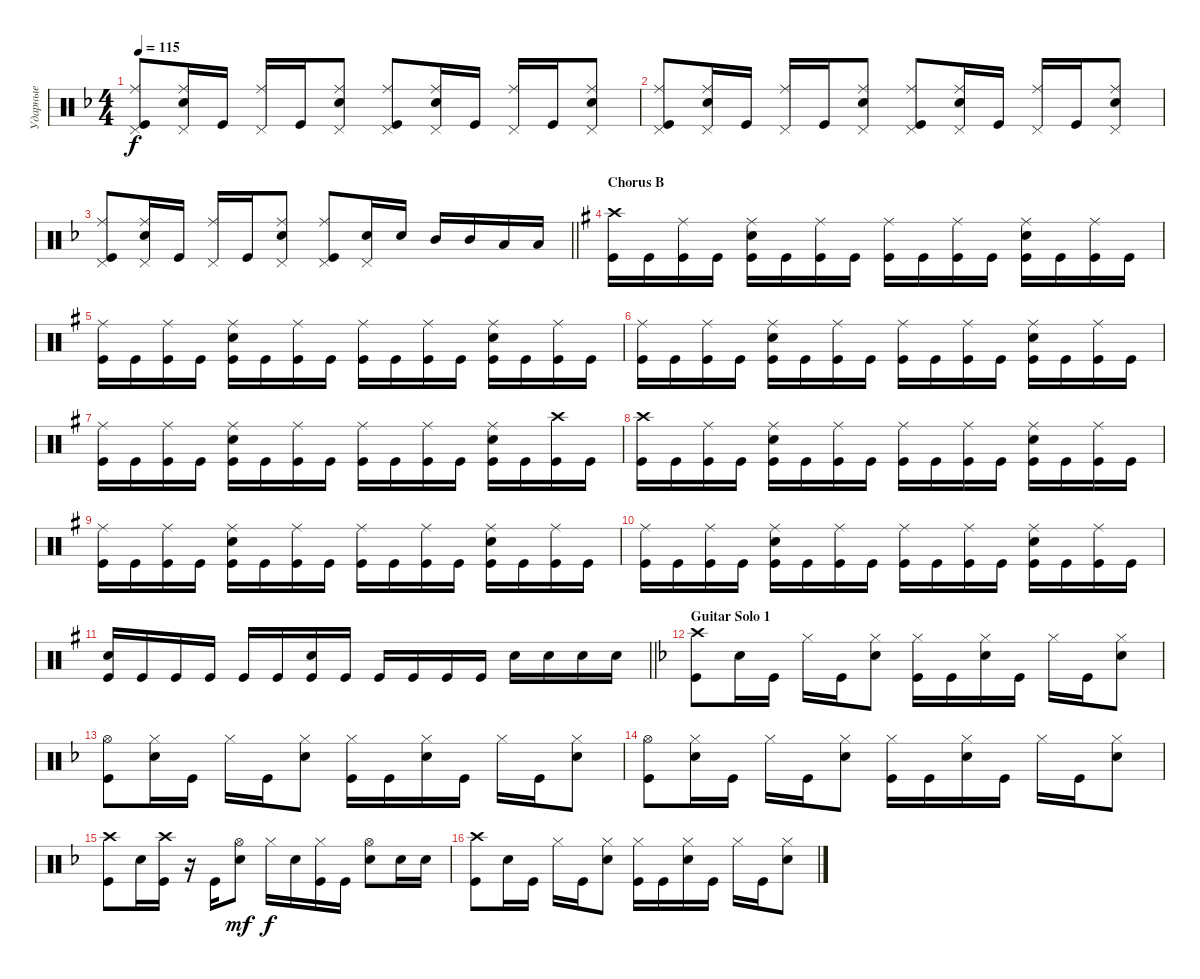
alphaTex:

\track ("Ударные" "Ударные") {instrument percussion}
\staff {score}
\articulation defaults
\ts (4 4)
\tempo 115
\clef neutral
\ks dminor
("Kick (hit)" "Pedal Hi-Hat (hit)" "Ride (middle)").8{dy f} ("Snare (hit) 2" "Ride (middle)" "Pedal Hi-Hat (hit)").16 "Kick (hit)".16 ("Ride (middle)" "Pedal Hi-Hat (hit)").16 "Kick (hit)".16 ("Snare (hit) 2" "Ride (middle)" "Pedal Hi-Hat (hit)").8 ("Kick (hit)" "Pedal Hi-Hat (hit)" "Ride (middle)").8 ("Snare (hit) 2" "Ride (middle)" "Pedal Hi-Hat (hit)").16 "Kick (hit)".16 ("Ride (middle)" "Pedal Hi-Hat (hit)").16 "Kick (hit)".16 ("Snare (hit) 2" "Ride (middle)" "Pedal Hi-Hat (hit)").8 |
("Kick (hit)" "Pedal Hi-Hat (hit)" "Ride (middle)").8 ("Snare (hit) 2" "Ride (middle)" "Pedal Hi-Hat (hit)").16 "Kick (hit)".16 ("Ride (middle)" "Pedal Hi-Hat (hit)").16 "Kick (hit)".16 ("Snare (hit) 2" "Ride (middle)" "Pedal Hi-Hat (hit)").8 ("Kick (hit)" "Pedal Hi-Hat (hit)" "Ride (middle)").8 ("Snare (hit) 2" "Ride (middle)" "Pedal Hi-Hat (hit)").16 "Kick (hit)".16 ("Ride (middle)" "Pedal Hi-Hat (hit)").16 "Kick (hit)".16 ("Snare (hit) 2" "Ride (middle)" "Pedal Hi-Hat (hit)").8 |
\barLineRight lightlight
("Kick (hit)" "Pedal Hi-Hat (hit)" "Ride (middle)").8 ("Snare (hit) 2" "Ride (middle)" "Pedal Hi-Hat (hit)").16 "Kick (hit)".16 ("Ride (middle)" "Pedal Hi-Hat (hit)").16 "Kick (hit)".16 ("Snare (hit) 2" "Ride (middle)" "Pedal Hi-Hat (hit)").8 ("Kick (hit)" "Pedal Hi-Hat (hit)" "Ride (middle)").8 ("Pedal Hi-Hat (hit)" "Snare (hit) 2").16 "Snare (hit) 2".16 "Mid Tom (hit)".16 "Mid Tom (hit)".16 "Low Tom (hit)".16 "Low Tom (hit)".16 |
\section ("" "Chorus B")
\ks eminor
("Kick (hit)" "Crash high (hit)").16 "Kick (hit)".16 ("Kick (hit)" "Ride (middle)").16 "Kick (hit)".16 ("Kick (hit)" "Snare (hit) 2" "Ride (middle)").16 "Kick (hit)".16 ("Kick (hit)" "Ride (middle)").16 "Kick (hit)".16 ("Kick (hit)" "Ride (middle)").16 "Kick (hit)".16 ("Kick (hit)" "Ride (middle)").16 "Kick (hit)".16 ("Kick (hit)" "Snare (hit) 2" "Ride (middle)").16 "Kick (hit)".16 ("Kick (hit)" "Ride (middle)").16 "Kick (hit)".16 |
("Kick (hit)" "Ride (middle)").16 "Kick (hit)".16 ("Kick (hit)" "Ride (middle)").16 "Kick (hit)".16 ("Kick (hit)" "Snare (hit) 2" "Ride (middle)").16 "Kick (hit)".16 ("Kick (hit)" "Ride (middle)").16 "Kick (hit)".16 ("Kick (hit)" "Ride (middle)").16 "Kick (hit)".16 ("Kick (hit)" "Ride (middle)").16 "Kick (hit)".16 ("Kick (hit)" "Snare (hit) 2" "Ride (middle)").16 "Kick (hit)".16 ("Kick (hit)" "Ride (middle)").16 "Kick (hit)".16 |
("Kick (hit)" "Ride (middle)").16 "Kick (hit)".16 ("Kick (hit)" "Ride (middle)").16 "Kick (hit)".16 ("Kick (hit)" "Snare (hit) 2" "Ride (middle)").16 "Kick (hit)".16 ("Kick (hit)" "Ride (middle)").16 "Kick (hit)".16 ("Kick (hit)" "Ride (middle)").16 "Kick (hit)".16 ("Kick (hit)" "Ride (middle)").16 "Kick (hit)".16 ("Kick (hit)" "Snare (hit) 2" "Ride (middle)").16 "Kick (hit)".16 ("Kick (hit)" "Ride (middle)").16 "Kick (hit)".16 |
("Kick (hit)" "Ride (middle)").16 "Kick (hit)".16 ("Kick (hit)" "Ride (middle)").16 "Kick (hit)".16 ("Kick (hit)" "Snare (hit) 2" "Ride (middle)").16 "Kick (hit)".16 ("Kick (hit)" "Ride (middle)").16 "Kick (hit)".16 ("Kick (hit)" "Ride (middle)").16 "Kick (hit)".16 ("Kick (hit)" "Ride (middle)").16 "Kick (hit)".16 ("Kick (hit)" "Snare (hit) 2" "Ride (middle)").16 "Kick (hit)".16 ("Kick (hit)" "Crash high (hit)").16 "Kick (hit)".16 |
("Kick (hit)" "Crash high (hit)").16 "Kick (hit)".16 ("Kick (hit)" "Ride (middle)").16 "Kick (hit)".16 ("Kick (hit)" "Snare (hit) 2" "Ride (middle)").16 "Kick (hit)".16 ("Kick (hit)" "Ride (middle)").16 "Kick (hit)".16 ("Kick (hit)" "Ride (middle)").16 "Kick (hit)".16 ("Kick (hit)" "Ride (middle)").16 "Kick (hit)".16 ("Kick (hit)" "Snare (hit) 2" "Ride (middle)").16 "Kick (hit)".16 ("Kick (hit)" "Ride (middle)").16 "Kick (hit)".16 |
("Kick (hit)" "Ride (middle)").16 "Kick (hit)".16 ("Kick (hit)" "Ride (middle)").16 "Kick (hit)".16 ("Kick (hit)" "Snare (hit) 2" "Ride (middle)").16 "Kick (hit)".16 ("Kick (hit)" "Ride (middle)").16 "Kick (hit)".16 ("Kick (hit)" "Ride (middle)").16 "Kick (hit)".16 ("Kick (hit)" "Ride (middle)").16 "Kick (hit)".16 ("Kick (hit)" "Snare (hit) 2" "Ride (middle)").16 "Kick (hit)".16 ("Kick (hit)" "Ride (middle)").16 "Kick (hit)".16 |
("Kick (hit)" "Ride (middle)").16 "Kick (hit)".16 ("Kick (hit)" "Ride (middle)").16 "Kick (hit)".16 ("Kick (hit)" "Snare (hit) 2" "Ride (middle)").16 "Kick (hit)".16 ("Kick (hit)" "Ride (middle)").16 "Kick (hit)".16 ("Kick (hit)" "Ride (middle)").16 "Kick (hit)".16 ("Kick (hit)" "Ride (middle)").16 "Kick (hit)".16 ("Kick (hit)" "Snare (hit) 2" "Ride (middle)").16 "Kick (hit)".16 ("Kick (hit)" "Ride (middle)").16 "Kick (hit)".16 |
\barLineRight lightlight
("Snare (hit) 2" "Kick (hit)").16 "Kick (hit)".16 "Kick (hit)".16 "Kick (hit)".16 "Kick (hit)".16 "Kick (hit)".16 ("Snare (hit) 2" "Kick (hit)").16 "Kick (hit)".16 "Kick (hit)".16 "Kick (hit)".16 "Kick (hit)".16 "Kick (hit)".16 "Snare (hit) 2".16 "Snare (hit) 2".16 "Snare (hit) 2".16 "Snare (hit) 2".16 |
\section ("" "Guitar Solo 1")
\ks dminor
("Kick (hit)" "Crash high (hit)").8 "Snare (hit) 2".16 "Kick (hit)".16 "Hi-Hat (closed)".16 "Kick (hit)".16 ("Snare (hit) 2" "Hi-Hat (closed)").8 ("Kick (hit)" "Hi-Hat (closed)").16 "Kick (hit)".16 ("Snare (hit) 2" "Hi-Hat (closed)").16 "Kick (hit)".16 "Hi-Hat (closed)".16 "Kick (hit)".16 ("Snare (hit) 2" "Hi-Hat (closed)").8 |
("Kick (hit)" "Hi-Hat (open)").8 ("Snare (hit) 2" "Hi-Hat (closed)").16 "Kick (hit)".16 "Hi-Hat (closed)".16 "Kick (hit)".16 ("Snare (hit) 2" "Hi-Hat (closed)").8 ("Kick (hit)" "Hi-Hat (closed)").16 "Kick (hit)".16 ("Snare (hit) 2" "Hi-Hat (closed)").16 "Kick (hit)".16 "Hi-Hat (closed)".16 "Kick (hit)".16 ("Snare (hit) 2" "Hi-Hat (closed)").8 |
("Kick (hit)" "Hi-Hat (open)").8 ("Snare (hit) 2" "Hi-Hat (closed)").16 "Kick (hit)".16 "Hi-Hat (closed)".16 "Kick (hit)".16 ("Snare (hit) 2" "Hi-Hat (closed)").8 ("Kick (hit)" "Hi-Hat (closed)").16 "Kick (hit)".16 ("Snare (hit) 2" "Hi-Hat (closed)").16 "Kick (hit)".16 "Hi-Hat (closed)".16 "Kick (hit)".16 ("Snare (hit) 2" "Hi-Hat (closed)").8 |
("Kick (hit)" "Crash high (hit)").8 "Snare (hit) 2".16 ("Kick (hit)" "Crash high (hit)").16 r.16 "Kick (hit)".16 ("Snare (hit) 2" "Hi-Hat (open)").8{dy mf} "Hi-Hat (closed)".16{dy f} "Snare (hit) 2".16 ("Kick (hit)" "Hi-Hat (closed)").16 "Kick (hit)".16 ("Snare (hit) 2" "Hi-Hat (open)").8 "Snare (hit) 2".16 "Snare (hit) 2".16 |
("Kick (hit)" "Crash high (hit)").8 "Snare (hit) 2".16 "Kick (hit)".16 "Hi-Hat (closed)".16 "Kick (hit)".16 ("Snare (hit) 2" "Hi-Hat (closed)").8 ("Kick (hit)" "Hi-Hat (closed)").16 "Kick (hit)".16 ("Snare (hit) 2" "Hi-Hat (closed)").16 "Kick (hit)".16 "Hi-Hat (closed)".16 "Kick (hit)".16 ("Snare (hit) 2" "Hi-Hat (closed)").8
